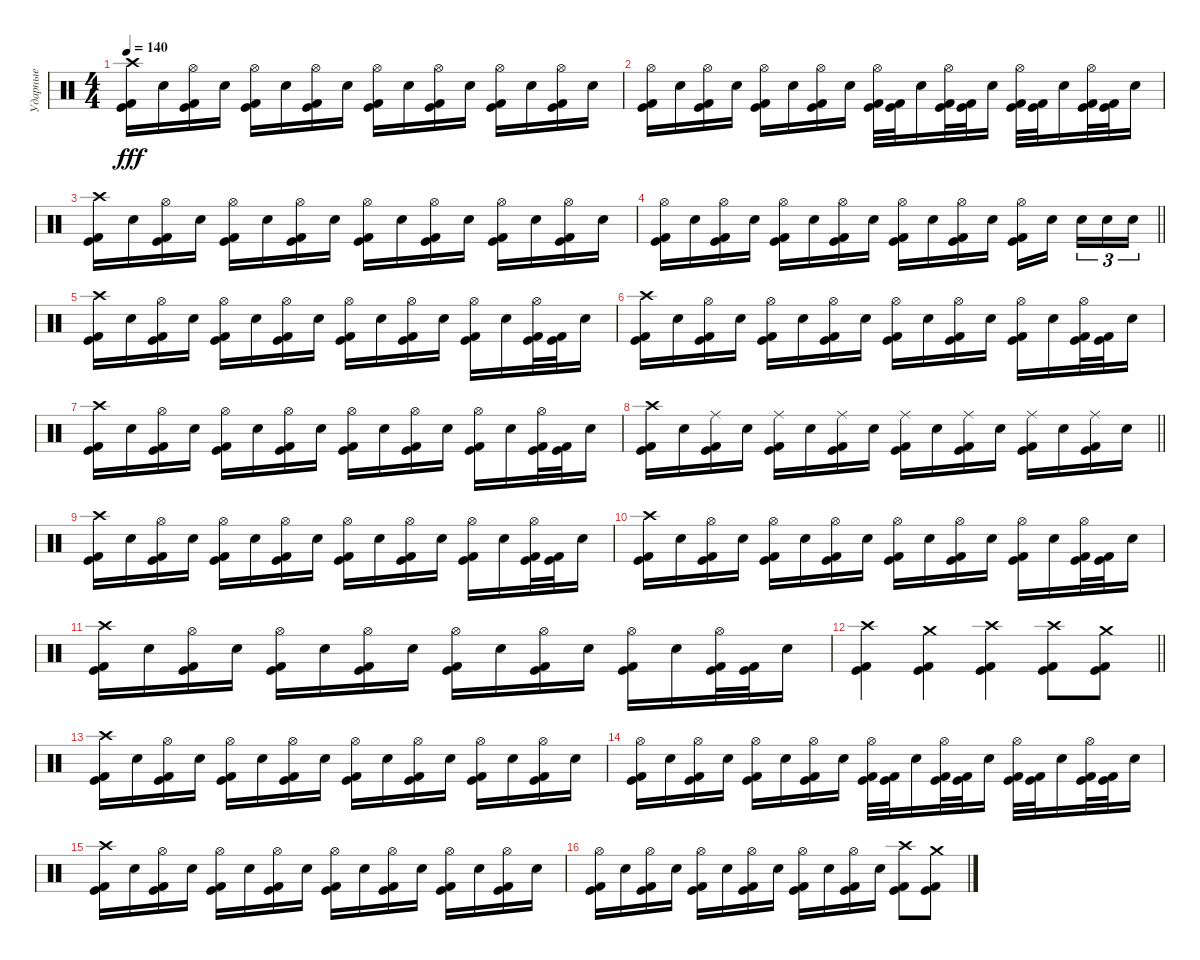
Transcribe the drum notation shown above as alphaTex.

\track ("Ударные" "Ударные") {instrument percussion}
\staff {score}
\articulation defaults
\ts (4 4)
\tempo 140
\clef neutral
\ks c
("Kick (hit)" "Kick (hit) 2" "Crash high (hit)").16{dy fff} "Electric Snare (hit)".16 ("Kick (hit)" "Kick (hit) 2" "Hi-Hat (open)").16 "Electric Snare (hit)".16 ("Kick (hit)" "Kick (hit) 2" "Hi-Hat (open)").16 "Electric Snare (hit)".16 ("Kick (hit)" "Kick (hit) 2" "Hi-Hat (open)").16 "Electric Snare (hit)".16 ("Kick (hit)" "Kick (hit) 2" "Hi-Hat (open)").16 "Electric Snare (hit)".16 ("Kick (hit)" "Kick (hit) 2" "Hi-Hat (open)").16 "Electric Snare (hit)".16 ("Kick (hit)" "Kick (hit) 2" "Hi-Hat (open)").16 "Electric Snare (hit)".16 ("Kick (hit)" "Kick (hit) 2" "Hi-Hat (open)").16 "Electric Snare (hit)".16 |
("Kick (hit)" "Kick (hit) 2" "Hi-Hat (open)").16 "Electric Snare (hit)".16 ("Kick (hit)" "Kick (hit) 2" "Hi-Hat (open)").16 "Electric Snare (hit)".16 ("Kick (hit)" "Kick (hit) 2" "Hi-Hat (open)").16 "Electric Snare (hit)".16 ("Kick (hit)" "Kick (hit) 2" "Hi-Hat (open)").16 "Electric Snare (hit)".16 ("Kick (hit)" "Kick (hit) 2" "Hi-Hat (open)").32 ("Kick (hit)" "Kick (hit) 2").32 "Electric Snare (hit)".16 ("Kick (hit)" "Kick (hit) 2" "Hi-Hat (open)").32 ("Kick (hit)" "Kick (hit) 2").32 "Electric Snare (hit)".16 ("Kick (hit)" "Kick (hit) 2" "Hi-Hat (open)").32 ("Kick (hit)" "Kick (hit) 2").32 "Electric Snare (hit)".16 ("Kick (hit)" "Kick (hit) 2" "Hi-Hat (open)").32 ("Kick (hit)" "Kick (hit) 2").32 "Electric Snare (hit)".16 |
("Kick (hit)" "Kick (hit) 2" "Crash high (hit)").16 "Electric Snare (hit)".16 ("Kick (hit)" "Kick (hit) 2" "Hi-Hat (open)").16 "Electric Snare (hit)".16 ("Kick (hit)" "Kick (hit) 2" "Hi-Hat (open)").16 "Electric Snare (hit)".16 ("Kick (hit)" "Kick (hit) 2" "Hi-Hat (open)").16 "Electric Snare (hit)".16 ("Kick (hit)" "Kick (hit) 2" "Hi-Hat (open)").16 "Electric Snare (hit)".16 ("Kick (hit)" "Kick (hit) 2" "Hi-Hat (open)").16 "Electric Snare (hit)".16 ("Kick (hit)" "Kick (hit) 2" "Hi-Hat (open)").16 "Electric Snare (hit)".16 ("Kick (hit)" "Kick (hit) 2" "Hi-Hat (open)").16 "Electric Snare (hit)".16 |
\barLineRight lightlight
("Kick (hit)" "Kick (hit) 2" "Hi-Hat (open)").16 "Electric Snare (hit)".16 ("Kick (hit)" "Kick (hit) 2" "Hi-Hat (open)").16 "Electric Snare (hit)".16 ("Kick (hit)" "Kick (hit) 2" "Hi-Hat (open)").16 "Electric Snare (hit)".16 ("Kick (hit)" "Kick (hit) 2" "Hi-Hat (open)").16 "Electric Snare (hit)".16 ("Kick (hit)" "Kick (hit) 2" "Hi-Hat (open)").16 "Electric Snare (hit)".16 ("Kick (hit)" "Kick (hit) 2" "Hi-Hat (open)").16 "Electric Snare (hit)".16 ("Kick (hit)" "Kick (hit) 2" "Hi-Hat (open)").16 "Electric Snare (hit)".16{beam splitsecondary} "Electric Snare (hit)".16{tu (3 2)} "Electric Snare (hit)".16{tu (3 2)} "Electric Snare (hit)".16{tu (3 2)} |
("Kick (hit)" "Kick (hit) 2" "Crash high (hit)").16 "Electric Snare (hit)".16 ("Kick (hit)" "Kick (hit) 2" "Hi-Hat (open)").16 "Electric Snare (hit)".16 ("Kick (hit)" "Kick (hit) 2" "Hi-Hat (open)").16 "Electric Snare (hit)".16 ("Kick (hit)" "Kick (hit) 2" "Hi-Hat (open)").16 "Electric Snare (hit)".16 ("Kick (hit)" "Kick (hit) 2" "Hi-Hat (open)").16 "Electric Snare (hit)".16 ("Kick (hit)" "Kick (hit) 2" "Hi-Hat (open)").16 "Electric Snare (hit)".16 ("Kick (hit)" "Kick (hit) 2" "Hi-Hat (open)").16 "Electric Snare (hit)".16 ("Kick (hit)" "Kick (hit) 2" "Hi-Hat (open)").32 ("Kick (hit)" "Kick (hit) 2").32 "Electric Snare (hit)".16 |
("Kick (hit)" "Kick (hit) 2" "Crash high (hit)").16 "Electric Snare (hit)".16 ("Kick (hit)" "Kick (hit) 2" "Hi-Hat (open)").16 "Electric Snare (hit)".16 ("Kick (hit)" "Kick (hit) 2" "Hi-Hat (open)").16 "Electric Snare (hit)".16 ("Kick (hit)" "Kick (hit) 2" "Hi-Hat (open)").16 "Electric Snare (hit)".16 ("Kick (hit)" "Kick (hit) 2" "Hi-Hat (open)").16 "Electric Snare (hit)".16 ("Kick (hit)" "Kick (hit) 2" "Hi-Hat (open)").16 "Electric Snare (hit)".16 ("Kick (hit)" "Kick (hit) 2" "Hi-Hat (open)").16 "Electric Snare (hit)".16 ("Kick (hit)" "Kick (hit) 2" "Hi-Hat (open)").32 ("Kick (hit)" "Kick (hit) 2").32 "Electric Snare (hit)".16 |
("Kick (hit)" "Kick (hit) 2" "Crash high (hit)").16 "Electric Snare (hit)".16 ("Kick (hit)" "Kick (hit) 2" "Hi-Hat (open)").16 "Electric Snare (hit)".16 ("Kick (hit)" "Kick (hit) 2" "Hi-Hat (open)").16 "Electric Snare (hit)".16 ("Kick (hit)" "Kick (hit) 2" "Hi-Hat (open)").16 "Electric Snare (hit)".16 ("Kick (hit)" "Kick (hit) 2" "Hi-Hat (open)").16 "Electric Snare (hit)".16 ("Kick (hit)" "Kick (hit) 2" "Hi-Hat (open)").16 "Electric Snare (hit)".16 ("Kick (hit)" "Kick (hit) 2" "Hi-Hat (open)").16 "Electric Snare (hit)".16 ("Kick (hit)" "Kick (hit) 2" "Hi-Hat (open)").32 ("Kick (hit)" "Kick (hit) 2").32 "Electric Snare (hit)".16 |
\barLineRight lightlight
("Kick (hit)" "Kick (hit) 2" "Crash high (hit)").16 "Electric Snare (hit)".16 ("Kick (hit)" "Kick (hit) 2" "Ride (middle)").16 "Electric Snare (hit)".16 ("Kick (hit)" "Kick (hit) 2" "Ride (middle)").16 "Electric Snare (hit)".16 ("Kick (hit)" "Kick (hit) 2" "Ride (middle)").16 "Electric Snare (hit)".16 ("Kick (hit)" "Kick (hit) 2" "Ride (middle)").16 "Electric Snare (hit)".16 ("Kick (hit)" "Kick (hit) 2" "Ride (middle)").16 "Electric Snare (hit)".16 ("Kick (hit)" "Kick (hit) 2" "Ride (middle)").16 "Electric Snare (hit)".16 ("Kick (hit)" "Kick (hit) 2" "Ride (middle)").16 "Electric Snare (hit)".16 |
("Kick (hit)" "Kick (hit) 2" "Crash high (hit)").16 "Electric Snare (hit)".16 ("Kick (hit)" "Kick (hit) 2" "Hi-Hat (open)").16 "Electric Snare (hit)".16 ("Kick (hit)" "Kick (hit) 2" "Hi-Hat (open)").16 "Electric Snare (hit)".16 ("Kick (hit)" "Kick (hit) 2" "Hi-Hat (open)").16 "Electric Snare (hit)".16 ("Kick (hit)" "Kick (hit) 2" "Hi-Hat (open)").16 "Electric Snare (hit)".16 ("Kick (hit)" "Kick (hit) 2" "Hi-Hat (open)").16 "Electric Snare (hit)".16 ("Kick (hit)" "Kick (hit) 2" "Hi-Hat (open)").16 "Electric Snare (hit)".16 ("Kick (hit)" "Kick (hit) 2" "Hi-Hat (open)").32 ("Kick (hit)" "Kick (hit) 2").32 "Electric Snare (hit)".16 |
("Kick (hit)" "Kick (hit) 2" "Crash high (hit)").16 "Electric Snare (hit)".16 ("Kick (hit)" "Kick (hit) 2" "Hi-Hat (open)").16 "Electric Snare (hit)".16 ("Kick (hit)" "Kick (hit) 2" "Hi-Hat (open)").16 "Electric Snare (hit)".16 ("Kick (hit)" "Kick (hit) 2" "Hi-Hat (open)").16 "Electric Snare (hit)".16 ("Kick (hit)" "Kick (hit) 2" "Hi-Hat (open)").16 "Electric Snare (hit)".16 ("Kick (hit)" "Kick (hit) 2" "Hi-Hat (open)").16 "Electric Snare (hit)".16 ("Kick (hit)" "Kick (hit) 2" "Hi-Hat (open)").16 "Electric Snare (hit)".16 ("Kick (hit)" "Kick (hit) 2" "Hi-Hat (open)").32 ("Kick (hit)" "Kick (hit) 2").32 "Electric Snare (hit)".16 |
("Kick (hit)" "Kick (hit) 2" "Crash high (hit)").16 "Electric Snare (hit)".16 ("Kick (hit)" "Kick (hit) 2" "Hi-Hat (open)").16 "Electric Snare (hit)".16 ("Kick (hit)" "Kick (hit) 2" "Hi-Hat (open)").16 "Electric Snare (hit)".16 ("Kick (hit)" "Kick (hit) 2" "Hi-Hat (open)").16 "Electric Snare (hit)".16 ("Kick (hit)" "Kick (hit) 2" "Hi-Hat (open)").16 "Electric Snare (hit)".16 ("Kick (hit)" "Kick (hit) 2" "Hi-Hat (open)").16 "Electric Snare (hit)".16 ("Kick (hit)" "Kick (hit) 2" "Hi-Hat (open)").16 "Electric Snare (hit)".16 ("Kick (hit)" "Kick (hit) 2" "Hi-Hat (open)").32 ("Kick (hit)" "Kick (hit) 2").32 "Electric Snare (hit)".16 |
\barLineRight lightlight
("Kick (hit)" "Crash high (hit)" "Kick (hit) 2").4 ("Kick (hit)" "Crash medium (hit)" "Kick (hit) 2").4 ("Kick (hit)" "Crash high (hit)" "Kick (hit) 2").4 ("Kick (hit)" "Crash high (hit)" "Kick (hit) 2").8 ("Kick (hit)" "Crash medium (hit)" "Kick (hit) 2").8 |
("Kick (hit)" "Kick (hit) 2" "Crash high (hit)").16 "Electric Snare (hit)".16 ("Kick (hit)" "Kick (hit) 2" "Hi-Hat (open)").16 "Electric Snare (hit)".16 ("Kick (hit)" "Kick (hit) 2" "Hi-Hat (open)").16 "Electric Snare (hit)".16 ("Kick (hit)" "Kick (hit) 2" "Hi-Hat (open)").16 "Electric Snare (hit)".16 ("Kick (hit)" "Kick (hit) 2" "Hi-Hat (open)").16 "Electric Snare (hit)".16 ("Kick (hit)" "Kick (hit) 2" "Hi-Hat (open)").16 "Electric Snare (hit)".16 ("Kick (hit)" "Kick (hit) 2" "Hi-Hat (open)").16 "Electric Snare (hit)".16 ("Kick (hit)" "Kick (hit) 2" "Hi-Hat (open)").16 "Electric Snare (hit)".16 |
("Kick (hit)" "Kick (hit) 2" "Hi-Hat (open)").16 "Electric Snare (hit)".16 ("Kick (hit)" "Kick (hit) 2" "Hi-Hat (open)").16 "Electric Snare (hit)".16 ("Kick (hit)" "Kick (hit) 2" "Hi-Hat (open)").16 "Electric Snare (hit)".16 ("Kick (hit)" "Kick (hit) 2" "Hi-Hat (open)").16 "Electric Snare (hit)".16 ("Kick (hit)" "Kick (hit) 2" "Hi-Hat (open)").32 ("Kick (hit)" "Kick (hit) 2").32 "Electric Snare (hit)".16 ("Kick (hit)" "Kick (hit) 2" "Hi-Hat (open)").32 ("Kick (hit)" "Kick (hit) 2").32 "Electric Snare (hit)".16 ("Kick (hit)" "Kick (hit) 2" "Hi-Hat (open)").32 ("Kick (hit)" "Kick (hit) 2").32 "Electric Snare (hit)".16 ("Kick (hit)" "Kick (hit) 2" "Hi-Hat (open)").32 ("Kick (hit)" "Kick (hit) 2").32 "Electric Snare (hit)".16 |
("Kick (hit)" "Kick (hit) 2" "Crash high (hit)").16 "Electric Snare (hit)".16 ("Kick (hit)" "Kick (hit) 2" "Hi-Hat (open)").16 "Electric Snare (hit)".16 ("Kick (hit)" "Kick (hit) 2" "Hi-Hat (open)").16 "Electric Snare (hit)".16 ("Kick (hit)" "Kick (hit) 2" "Hi-Hat (open)").16 "Electric Snare (hit)".16 ("Kick (hit)" "Kick (hit) 2" "Hi-Hat (open)").16 "Electric Snare (hit)".16 ("Kick (hit)" "Kick (hit) 2" "Hi-Hat (open)").16 "Electric Snare (hit)".16 ("Kick (hit)" "Kick (hit) 2" "Hi-Hat (open)").16 "Electric Snare (hit)".16 ("Kick (hit)" "Kick (hit) 2" "Hi-Hat (open)").16 "Electric Snare (hit)".16 |
("Kick (hit)" "Kick (hit) 2" "Hi-Hat (open)").16 "Electric Snare (hit)".16 ("Kick (hit)" "Kick (hit) 2" "Hi-Hat (open)").16 "Electric Snare (hit)".16 ("Kick (hit)" "Kick (hit) 2" "Hi-Hat (open)").16 "Electric Snare (hit)".16 ("Kick (hit)" "Kick (hit) 2" "Hi-Hat (open)").16 "Electric Snare (hit)".16 ("Kick (hit)" "Kick (hit) 2" "Hi-Hat (open)").16 "Electric Snare (hit)".16 ("Kick (hit)" "Kick (hit) 2" "Hi-Hat (open)").16 "Electric Snare (hit)".16 ("Kick (hit) 2" "Kick (hit)" "Crash high (hit)").8 ("Kick (hit) 2" "Kick (hit)" "Crash medium (hit)").8
